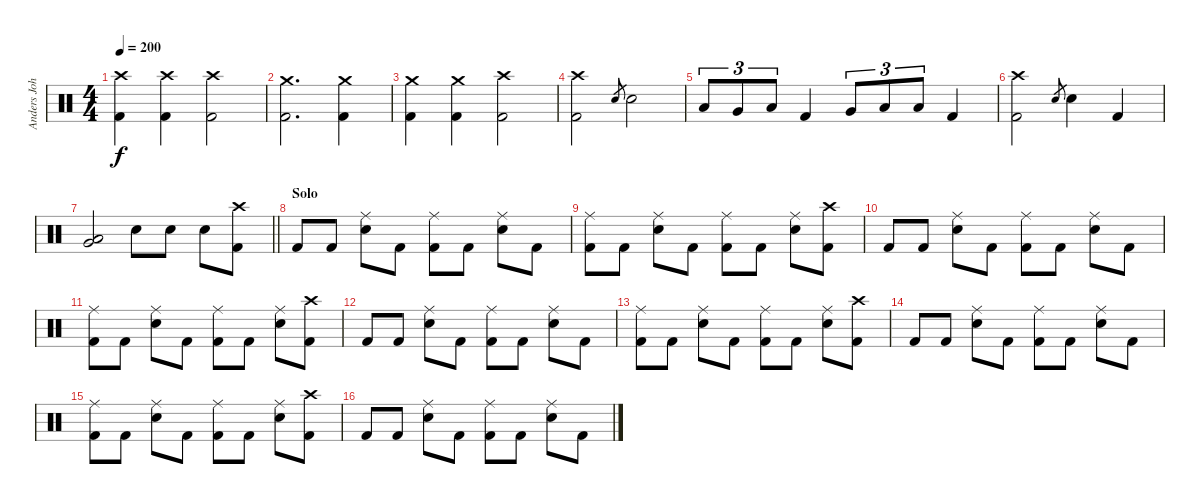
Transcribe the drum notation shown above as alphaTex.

\track ("Anders Johansson" "Anders Joh") {instrument percussion}
\staff {score}
\articulation defaults
\ts (4 4)
\tempo 200
\clef neutral
\ks c
("Crash high (hit)" "Kick (hit) 2").4{dy f} ("Crash high (hit)" "Kick (hit) 2").4 ("Crash high (hit)" "Kick (hit) 2").2 |
("Crash medium (hit)" "Kick (hit) 2").2{d} ("Crash medium (hit)" "Kick (hit) 2").4 |
("Crash medium (hit)" "Kick (hit) 2").4 ("Crash medium (hit)" "Kick (hit) 2").4 ("Crash high (hit)" "Kick (hit) 2").2 |
("Crash high (hit)" "Kick (hit) 2").2 "Snare (hit) 2".8{gr} "Snare (hit) 2".2 |
"Low Tom (hit)".8{tu (3 2)} "Very Low Tom (hit)".8{tu (3 2)} "Low Floor Tom (hit)".8{tu (3 2)} "Kick (hit) 2".4 "Very Low Tom (hit)".8{tu (3 2)} "Low Floor Tom (hit)".8{tu (3 2)} "Low Floor Tom (hit)".8{tu (3 2)} "Kick (hit) 2".4 |
("Crash high (hit)" "Kick (hit) 2").2 "Snare (hit) 2".8{gr} "Snare (hit) 2".4 "Kick (hit) 2".4 |
\barLineRight lightlight
("Low Tom (hit)" "Very Low Tom (hit)").2 "Snare (hit) 2".8 "Snare (hit) 2".8 "Snare (hit) 2".8 ("Crash high (hit)" "Kick (hit) 2").8 |
\section ("" "Solo")
"Kick (hit) 2".8 "Kick (hit) 2".8 ("Ride (middle)" "Snare (hit) 2").8 "Kick (hit) 2".8 ("Ride (middle)" "Kick (hit) 2").8 "Kick (hit) 2".8 ("Ride (middle)" "Snare (hit) 2").8 "Kick (hit) 2".8 |
("Ride (middle)" "Kick (hit) 2").8 "Kick (hit) 2".8 ("Ride (middle)" "Snare (hit) 2").8 "Kick (hit) 2".8 ("Ride (middle)" "Kick (hit) 2").8 "Kick (hit) 2".8 ("Ride (middle)" "Snare (hit) 2").8 ("Crash high (hit)" "Kick (hit) 2").8 |
"Kick (hit) 2".8 "Kick (hit) 2".8 ("Ride (middle)" "Snare (hit) 2").8 "Kick (hit) 2".8 ("Ride (middle)" "Kick (hit) 2").8 "Kick (hit) 2".8 ("Ride (middle)" "Snare (hit) 2").8 "Kick (hit) 2".8 |
("Ride (middle)" "Kick (hit) 2").8 "Kick (hit) 2".8 ("Ride (middle)" "Snare (hit) 2").8 "Kick (hit) 2".8 ("Ride (middle)" "Kick (hit) 2").8 "Kick (hit) 2".8 ("Ride (middle)" "Snare (hit) 2").8 ("Crash high (hit)" "Kick (hit) 2").8 |
"Kick (hit) 2".8 "Kick (hit) 2".8 ("Ride (middle)" "Snare (hit) 2").8 "Kick (hit) 2".8 ("Ride (middle)" "Kick (hit) 2").8 "Kick (hit) 2".8 ("Ride (middle)" "Snare (hit) 2").8 "Kick (hit) 2".8 |
("Ride (middle)" "Kick (hit) 2").8 "Kick (hit) 2".8 ("Ride (middle)" "Snare (hit) 2").8 "Kick (hit) 2".8 ("Ride (middle)" "Kick (hit) 2").8 "Kick (hit) 2".8 ("Ride (middle)" "Snare (hit) 2").8 ("Crash high (hit)" "Kick (hit) 2").8 |
"Kick (hit) 2".8 "Kick (hit) 2".8 ("Ride (middle)" "Snare (hit) 2").8 "Kick (hit) 2".8 ("Ride (middle)" "Kick (hit) 2").8 "Kick (hit) 2".8 ("Ride (middle)" "Snare (hit) 2").8 "Kick (hit) 2".8 |
("Ride (middle)" "Kick (hit) 2").8 "Kick (hit) 2".8 ("Ride (middle)" "Snare (hit) 2").8 "Kick (hit) 2".8 ("Ride (middle)" "Kick (hit) 2").8 "Kick (hit) 2".8 ("Ride (middle)" "Snare (hit) 2").8 ("Crash high (hit)" "Kick (hit) 2").8 |
"Kick (hit) 2".8 "Kick (hit) 2".8 ("Ride (middle)" "Snare (hit) 2").8 "Kick (hit) 2".8 ("Ride (middle)" "Kick (hit) 2").8 "Kick (hit) 2".8 ("Ride (middle)" "Snare (hit) 2").8 "Kick (hit) 2".8
